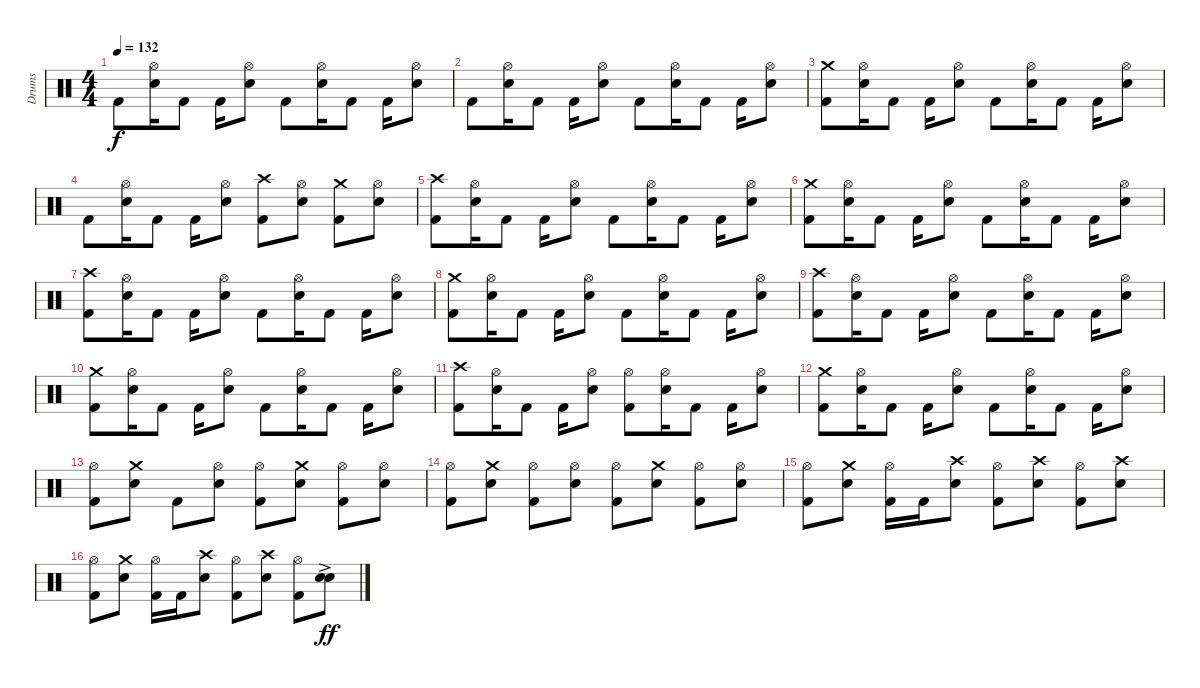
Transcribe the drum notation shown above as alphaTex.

\track ("Drums" "Drums") {instrument percussion}
\staff {score}
\articulation defaults
\ts (4 4)
\tempo 132
\clef neutral
\ks c "Kick (hit) 2".8{dy f}
("Hi-Hat (open)" "Electric Snare (hit)").16 "Kick (hit) 2".8 "Kick (hit) 2".16 ("Hi-Hat (open)" "Electric Snare (hit)").8 "Kick (hit) 2".8 ("Hi-Hat (open)" "Electric Snare (hit)").16 "Kick (hit) 2".8 "Kick (hit) 2".16 ("Hi-Hat (open)" "Electric Snare (hit)").8 |
"Kick (hit) 2".8 ("Hi-Hat (open)" "Electric Snare (hit)").16 "Kick (hit) 2".8 "Kick (hit) 2".16 ("Hi-Hat (open)" "Electric Snare (hit)").8 "Kick (hit) 2".8 ("Hi-Hat (open)" "Electric Snare (hit)").16 "Kick (hit) 2".8 "Kick (hit) 2".16 ("Hi-Hat (open)" "Electric Snare (hit)").8 |
("Crash medium (hit)" "Kick (hit) 2").8 ("Hi-Hat (open)" "Electric Snare (hit)").16 "Kick (hit) 2".8 "Kick (hit) 2".16 ("Hi-Hat (open)" "Electric Snare (hit)").8 "Kick (hit) 2".8 ("Hi-Hat (open)" "Electric Snare (hit)").16 "Kick (hit) 2".8 "Kick (hit) 2".16 ("Hi-Hat (open)" "Electric Snare (hit)").8 |
"Kick (hit) 2".8 ("Hi-Hat (open)" "Electric Snare (hit)").16 "Kick (hit) 2".8 "Kick (hit) 2".16 ("Hi-Hat (open)" "Electric Snare (hit)").8 ("Crash high (hit)" "Kick (hit) 2").8 ("Hi-Hat (open)" "Electric Snare (hit)").8 ("Crash medium (hit)" "Kick (hit) 2").8 ("Hi-Hat (open)" "Electric Snare (hit)").8 |
("Crash high (hit)" "Kick (hit) 2").8 ("Hi-Hat (open)" "Electric Snare (hit)").16 "Kick (hit) 2".8 "Kick (hit) 2".16 ("Hi-Hat (open)" "Electric Snare (hit)").8 "Kick (hit) 2".8 ("Hi-Hat (open)" "Electric Snare (hit)").16 "Kick (hit) 2".8 "Kick (hit) 2".16 ("Hi-Hat (open)" "Electric Snare (hit)").8 |
("Crash medium (hit)" "Kick (hit) 2").8 ("Hi-Hat (open)" "Electric Snare (hit)").16 "Kick (hit) 2".8 "Kick (hit) 2".16 ("Hi-Hat (open)" "Electric Snare (hit)").8 "Kick (hit) 2".8 ("Hi-Hat (open)" "Electric Snare (hit)").16 "Kick (hit) 2".8 "Kick (hit) 2".16 ("Hi-Hat (open)" "Electric Snare (hit)").8 |
("Crash high (hit)" "Kick (hit) 2").8 ("Hi-Hat (open)" "Electric Snare (hit)").16 "Kick (hit) 2".8 "Kick (hit) 2".16 ("Hi-Hat (open)" "Electric Snare (hit)").8 "Kick (hit) 2".8 ("Hi-Hat (open)" "Electric Snare (hit)").16 "Kick (hit) 2".8 "Kick (hit) 2".16 ("Hi-Hat (open)" "Electric Snare (hit)").8 |
("Crash medium (hit)" "Kick (hit) 2").8 ("Hi-Hat (open)" "Electric Snare (hit)").16 "Kick (hit) 2".8 "Kick (hit) 2".16 ("Hi-Hat (open)" "Electric Snare (hit)").8 "Kick (hit) 2".8 ("Hi-Hat (open)" "Electric Snare (hit)").16 "Kick (hit) 2".8 "Kick (hit) 2".16 ("Hi-Hat (open)" "Electric Snare (hit)").8 |
("Crash high (hit)" "Kick (hit) 2").8 ("Hi-Hat (open)" "Electric Snare (hit)").16 "Kick (hit) 2".8 "Kick (hit) 2".16 ("Hi-Hat (open)" "Electric Snare (hit)").8 "Kick (hit) 2".8 ("Hi-Hat (open)" "Electric Snare (hit)").16 "Kick (hit) 2".8 "Kick (hit) 2".16 ("Hi-Hat (open)" "Electric Snare (hit)").8 |
("Crash medium (hit)" "Kick (hit) 2").8 ("Hi-Hat (open)" "Electric Snare (hit)").16 "Kick (hit) 2".8 "Kick (hit) 2".16 ("Hi-Hat (open)" "Electric Snare (hit)").8 "Kick (hit) 2".8 ("Hi-Hat (open)" "Electric Snare (hit)").16 "Kick (hit) 2".8 "Kick (hit) 2".16 ("Hi-Hat (open)" "Electric Snare (hit)").8 |
("Crash high (hit)" "Kick (hit) 2").8 ("Hi-Hat (open)" "Electric Snare (hit)").16 "Kick (hit) 2".8 "Kick (hit) 2".16 ("Hi-Hat (open)" "Electric Snare (hit)").8 ("Hi-Hat (open)" "Kick (hit) 2").8 ("Hi-Hat (open)" "Electric Snare (hit)").16 "Kick (hit) 2".8 "Kick (hit) 2".16 ("Hi-Hat (open)" "Electric Snare (hit)").8 |
("Crash medium (hit)" "Kick (hit) 2").8 ("Hi-Hat (open)" "Electric Snare (hit)").16 "Kick (hit) 2".8 "Kick (hit) 2".16 ("Hi-Hat (open)" "Electric Snare (hit)").8 "Kick (hit) 2".8 ("Hi-Hat (open)" "Electric Snare (hit)").16 "Kick (hit) 2".8 "Kick (hit) 2".16 ("Hi-Hat (open)" "Electric Snare (hit)").8 |
("Hi-Hat (open)" "Kick (hit) 2").8 ("Crash medium (hit)" "Electric Snare (hit)").8 "Kick (hit) 2".8 ("Hi-Hat (open)" "Electric Snare (hit)").8 ("Hi-Hat (open)" "Kick (hit) 2").8 ("Crash medium (hit)" "Electric Snare (hit)").8 ("Hi-Hat (open)" "Kick (hit) 2").8 ("Hi-Hat (open)" "Electric Snare (hit)").8 |
("Hi-Hat (open)" "Kick (hit) 2").8 ("Crash medium (hit)" "Electric Snare (hit)").8 ("Hi-Hat (open)" "Kick (hit) 2").8 ("Hi-Hat (open)" "Electric Snare (hit)").8 ("Hi-Hat (open)" "Kick (hit) 2").8 ("Crash medium (hit)" "Electric Snare (hit)").8 ("Hi-Hat (open)" "Kick (hit) 2").8 ("Hi-Hat (open)" "Electric Snare (hit)").8 |
("Hi-Hat (open)" "Kick (hit) 2").8 ("Crash medium (hit)" "Electric Snare (hit)").8 ("Hi-Hat (open)" "Kick (hit) 2").16 "Kick (hit) 2".16 ("Crash high (hit)" "Electric Snare (hit)").8 ("Hi-Hat (open)" "Kick (hit) 2").8 ("Crash high (hit)" "Electric Snare (hit)").8 ("Hi-Hat (open)" "Kick (hit) 2").8 ("Crash high (hit)" "Electric Snare (hit)").8 |
("Hi-Hat (open)" "Kick (hit) 2").8 ("Crash medium (hit)" "Electric Snare (hit)").8 ("Hi-Hat (open)" "Kick (hit) 2").16 "Kick (hit) 2".16 ("Crash high (hit)" "Electric Snare (hit)").8 ("Hi-Hat (open)" "Kick (hit) 2").8 ("Crash high (hit)" "Electric Snare (hit)").8 ("Hi-Hat (open)" "Kick (hit) 2").8 ("Electric Snare (hit)"{ac} "Electric Snare (hit)"{ac}).8{bd 120 dy ff}
